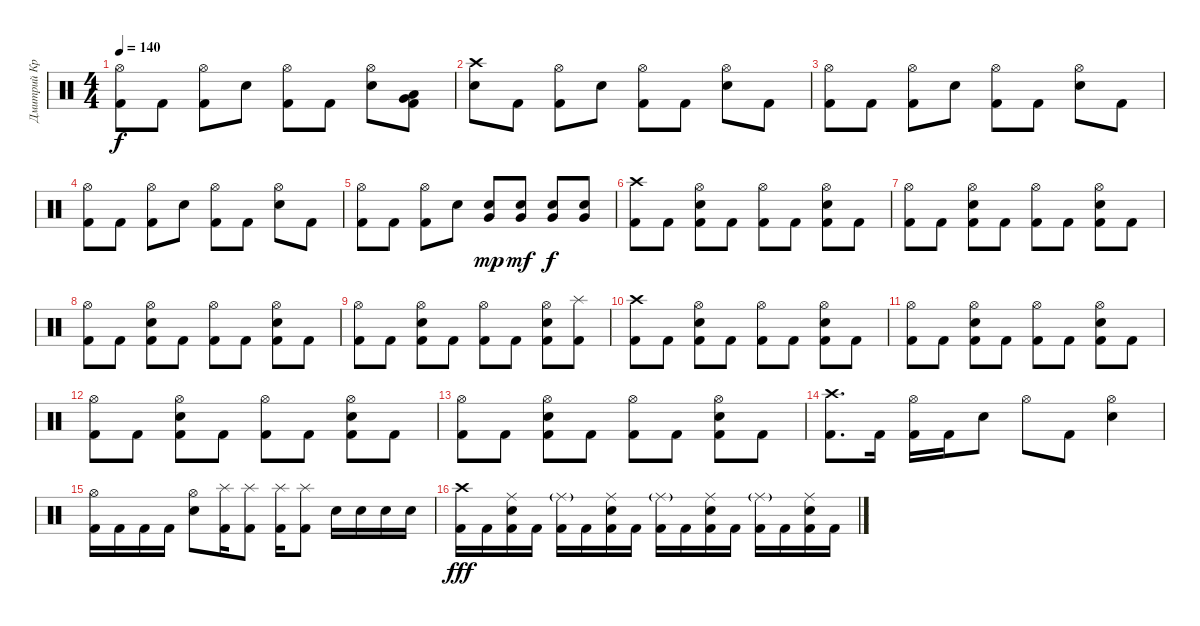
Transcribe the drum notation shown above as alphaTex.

\track ("Дмитрий Кривенков" "Дмитрий Кр") {instrument percussion}
\staff {score}
\articulation defaults
\ts (4 4)
\tempo 140
\clef neutral
\ks c
("Hi-Hat (open)" "Kick (hit) 2").8{dy f} "Kick (hit) 2".8 ("Hi-Hat (open)" "Kick (hit) 2").8 "Electric Snare (hit)".8 ("Hi-Hat (open)" "Kick (hit) 2").8 "Kick (hit) 2".8 ("Hi-Hat (open)" "Electric Snare (hit)").8 ("Very Low Tom (hit)" "Low Floor Tom (hit)" "Kick (hit) 2").8 |
("Crash high (hit)" "Electric Snare (hit)").8 "Kick (hit) 2".8 ("Hi-Hat (open)" "Kick (hit) 2").8 "Electric Snare (hit)".8 ("Hi-Hat (open)" "Kick (hit) 2").8 "Kick (hit) 2".8 ("Hi-Hat (open)" "Electric Snare (hit)").8 "Kick (hit) 2".8 |
("Hi-Hat (open)" "Kick (hit) 2").8 "Kick (hit) 2".8 ("Hi-Hat (open)" "Kick (hit) 2").8 "Electric Snare (hit)".8 ("Hi-Hat (open)" "Kick (hit) 2").8 "Kick (hit) 2".8 ("Hi-Hat (open)" "Electric Snare (hit)").8 "Kick (hit) 2".8 |
("Hi-Hat (open)" "Kick (hit) 2").8 "Kick (hit) 2".8 ("Hi-Hat (open)" "Kick (hit) 2").8 "Electric Snare (hit)".8 ("Hi-Hat (open)" "Kick (hit) 2").8 "Kick (hit) 2".8 ("Hi-Hat (open)" "Electric Snare (hit)").8 "Kick (hit) 2".8 |
("Hi-Hat (open)" "Kick (hit) 2").8 "Kick (hit) 2".8 ("Hi-Hat (open)" "Kick (hit) 2").8 "Electric Snare (hit)".8 ("Electric Snare (hit)" "Very Low Tom (hit)").8{dy mp} ("Electric Snare (hit)" "Very Low Tom (hit)").8{dy mf} ("Electric Snare (hit)" "Very Low Tom (hit)").8{dy f} ("Electric Snare (hit)" "Very Low Tom (hit)").8 |
("Crash high (hit)" "Kick (hit) 2").8 "Kick (hit) 2".8 ("Hi-Hat (open)" "Electric Snare (hit)" "Kick (hit) 2").8 "Kick (hit) 2".8 ("Hi-Hat (open)" "Kick (hit) 2").8 "Kick (hit) 2".8 ("Hi-Hat (open)" "Electric Snare (hit)" "Kick (hit) 2").8 "Kick (hit) 2".8 |
("Hi-Hat (open)" "Kick (hit) 2").8 "Kick (hit) 2".8 ("Hi-Hat (open)" "Electric Snare (hit)" "Kick (hit) 2").8 "Kick (hit) 2".8 ("Hi-Hat (open)" "Kick (hit) 2").8 "Kick (hit) 2".8 ("Hi-Hat (open)" "Electric Snare (hit)" "Kick (hit) 2").8 "Kick (hit) 2".8 |
("Hi-Hat (open)" "Kick (hit) 2").8 "Kick (hit) 2".8 ("Hi-Hat (open)" "Electric Snare (hit)" "Kick (hit) 2").8 "Kick (hit) 2".8 ("Hi-Hat (open)" "Kick (hit) 2").8 "Kick (hit) 2".8 ("Hi-Hat (open)" "Electric Snare (hit)" "Kick (hit) 2").8 "Kick (hit) 2".8 |
("Hi-Hat (open)" "Kick (hit) 2").8 "Kick (hit) 2".8 ("Hi-Hat (open)" "Electric Snare (hit)" "Kick (hit) 2").8 "Kick (hit) 2".8 ("Hi-Hat (open)" "Kick (hit) 2").8 "Kick (hit) 2".8 ("Hi-Hat (open)" "Electric Snare (hit)" "Kick (hit) 2").8 ("Splash (hit)" "Kick (hit) 2").8 |
("Crash high (hit)" "Kick (hit) 2").8 "Kick (hit) 2".8 ("Hi-Hat (open)" "Electric Snare (hit)" "Kick (hit) 2").8 "Kick (hit) 2".8 ("Hi-Hat (open)" "Kick (hit) 2").8 "Kick (hit) 2".8 ("Hi-Hat (open)" "Electric Snare (hit)" "Kick (hit) 2").8 "Kick (hit) 2".8 |
("Hi-Hat (open)" "Kick (hit) 2").8 "Kick (hit) 2".8 ("Hi-Hat (open)" "Electric Snare (hit)" "Kick (hit) 2").8 "Kick (hit) 2".8 ("Hi-Hat (open)" "Kick (hit) 2").8 "Kick (hit) 2".8 ("Hi-Hat (open)" "Electric Snare (hit)" "Kick (hit) 2").8 "Kick (hit) 2".8 |
("Hi-Hat (open)" "Kick (hit) 2").8 "Kick (hit) 2".8 ("Hi-Hat (open)" "Electric Snare (hit)" "Kick (hit) 2").8 "Kick (hit) 2".8 ("Hi-Hat (open)" "Kick (hit) 2").8 "Kick (hit) 2".8 ("Hi-Hat (open)" "Electric Snare (hit)" "Kick (hit) 2").8 "Kick (hit) 2".8 |
("Hi-Hat (open)" "Kick (hit) 2").8 "Kick (hit) 2".8 ("Hi-Hat (open)" "Electric Snare (hit)" "Kick (hit) 2").8 "Kick (hit) 2".8 ("Hi-Hat (open)" "Kick (hit) 2").8 "Kick (hit) 2".8 ("Hi-Hat (open)" "Electric Snare (hit)" "Kick (hit) 2").8 "Kick (hit) 2".8 |
("Crash high (hit)" "Kick (hit) 2").8{d} "Kick (hit) 2".16 ("Hi-Hat (open)" "Kick (hit) 2").16 "Kick (hit) 2".16 "Electric Snare (hit)".8 "Hi-Hat (open)".8 "Kick (hit) 2".8 ("Hi-Hat (open)" "Electric Snare (hit)").4 |
("Hi-Hat (open)" "Kick (hit) 2").16 "Kick (hit) 2".16 "Kick (hit) 2".16 "Kick (hit) 2".16 ("Hi-Hat (open)" "Electric Snare (hit)").8 ("Splash (hit)" "Kick (hit) 2").16 ("Splash (hit)" "Kick (hit) 2").8 ("Splash (hit)" "Kick (hit) 2").16 ("Splash (hit)" "Kick (hit) 2").8 "Electric Snare (hit)".16 "Electric Snare (hit)".16 "Electric Snare (hit)".16 "Electric Snare (hit)".16 |
("Crash high (hit)" "Kick (hit) 2").16{dy fff} "Kick (hit) 2".16 ("Ride (middle)" "Electric Snare (hit)" "Kick (hit) 2").16 "Kick (hit) 2".16 ("Ride (middle)"{g} "Kick (hit) 2").16 "Kick (hit) 2".16 ("Ride (middle)" "Electric Snare (hit)" "Kick (hit) 2").16 "Kick (hit) 2".16 ("Ride (middle)"{g} "Kick (hit) 2").16 "Kick (hit) 2".16 ("Ride (middle)" "Electric Snare (hit)" "Kick (hit) 2").16 "Kick (hit) 2".16 ("Ride (middle)"{g} "Kick (hit) 2").16 "Kick (hit) 2".16 ("Ride (middle)" "Electric Snare (hit)" "Kick (hit) 2").16 "Kick (hit) 2".16
